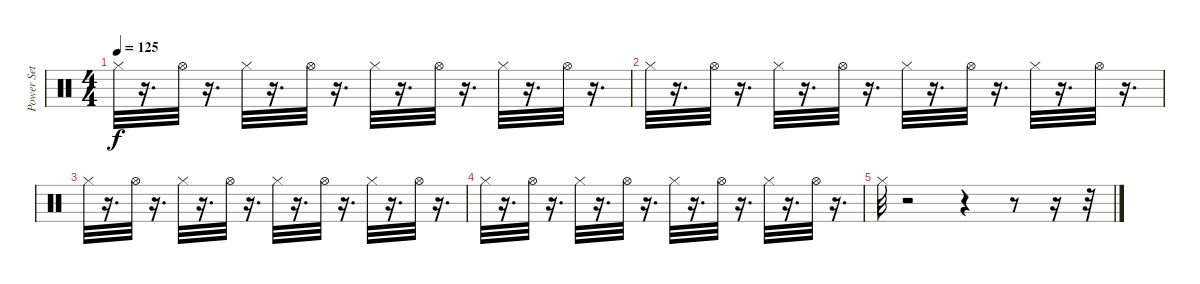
\track ("Power Set" "Power Set") {instrument percussion}
\staff {score}
\articulation defaults
\ts (4 4)
\tempo 125
\clef neutral
\ks c "Hi-Hat (closed)".32{dy f}
r.16{d} "Hi-Hat (open)".32 r.16{d} "Hi-Hat (closed)".32 r.16{d} "Hi-Hat (open)".32 r.16{d} "Hi-Hat (closed)".32 r.16{d} "Hi-Hat (open)".32 r.16{d} "Hi-Hat (closed)".32 r.16{d} "Hi-Hat (open)".32 r.16{d} |
"Hi-Hat (closed)".32 r.16{d} "Hi-Hat (open)".32 r.16{d} "Hi-Hat (closed)".32 r.16{d} "Hi-Hat (open)".32 r.16{d} "Hi-Hat (closed)".32 r.16{d} "Hi-Hat (open)".32 r.16{d} "Hi-Hat (closed)".32 r.16{d} "Hi-Hat (open)".32 r.16{d} |
"Hi-Hat (closed)".32 r.16{d} "Hi-Hat (open)".32 r.16{d} "Hi-Hat (closed)".32 r.16{d} "Hi-Hat (open)".32 r.16{d} "Hi-Hat (closed)".32 r.16{d} "Hi-Hat (open)".32 r.16{d} "Hi-Hat (closed)".32 r.16{d} "Hi-Hat (open)".32 r.16{d} |
"Hi-Hat (closed)".32 r.16{d} "Hi-Hat (open)".32 r.16{d} "Hi-Hat (closed)".32 r.16{d} "Hi-Hat (open)".32 r.16{d} "Hi-Hat (closed)".32 r.16{d} "Hi-Hat (open)".32 r.16{d} "Hi-Hat (closed)".32 r.16{d} "Hi-Hat (open)".32 r.16{d} |
"Hi-Hat (closed)".32 r.2 r.4 r.8 r.16 r.32
